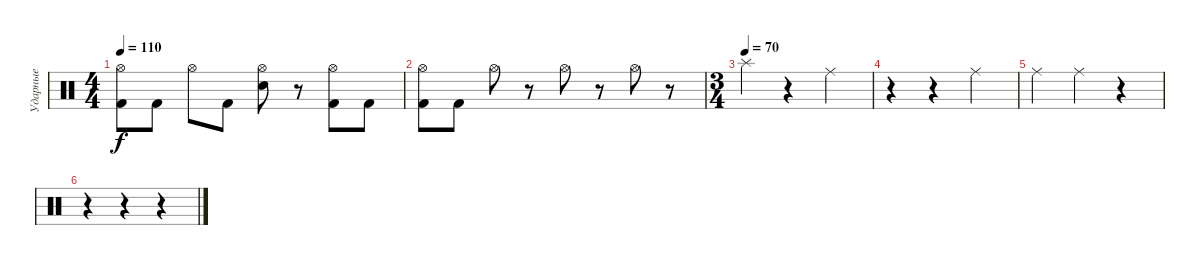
\track ("Ударные" "Ударные") {instrument percussion}
\staff {score}
\articulation defaults
\ts (4 4)
\tempo 110
\clef neutral
\ks c
("Hi-Hat (open)" "Kick (hit) 2").8{dy f} "Kick (hit) 2".8 "Hi-Hat (open)".8 "Kick (hit) 2".8 ("Hi-Hat (open)" "Electric Snare (hit)").8 r.8 ("Hi-Hat (open)" "Kick (hit) 2").8 "Kick (hit) 2".8 |
("Hi-Hat (open)" "Kick (hit) 2").8 "Kick (hit) 2".8 "Hi-Hat (open)".8 r.8 "Hi-Hat (open)".8 r.8 "Hi-Hat (open)".8 r.8 |
\ts (3 4)
\tempo (70)
"Splash (hit)".4 r.4 "Ride (middle)".4 |
r.4 r.4 "Ride (middle)".4 |
"Ride (middle)".4 "Ride (middle)".4 r.4 |
r.4 r.4 r.4
